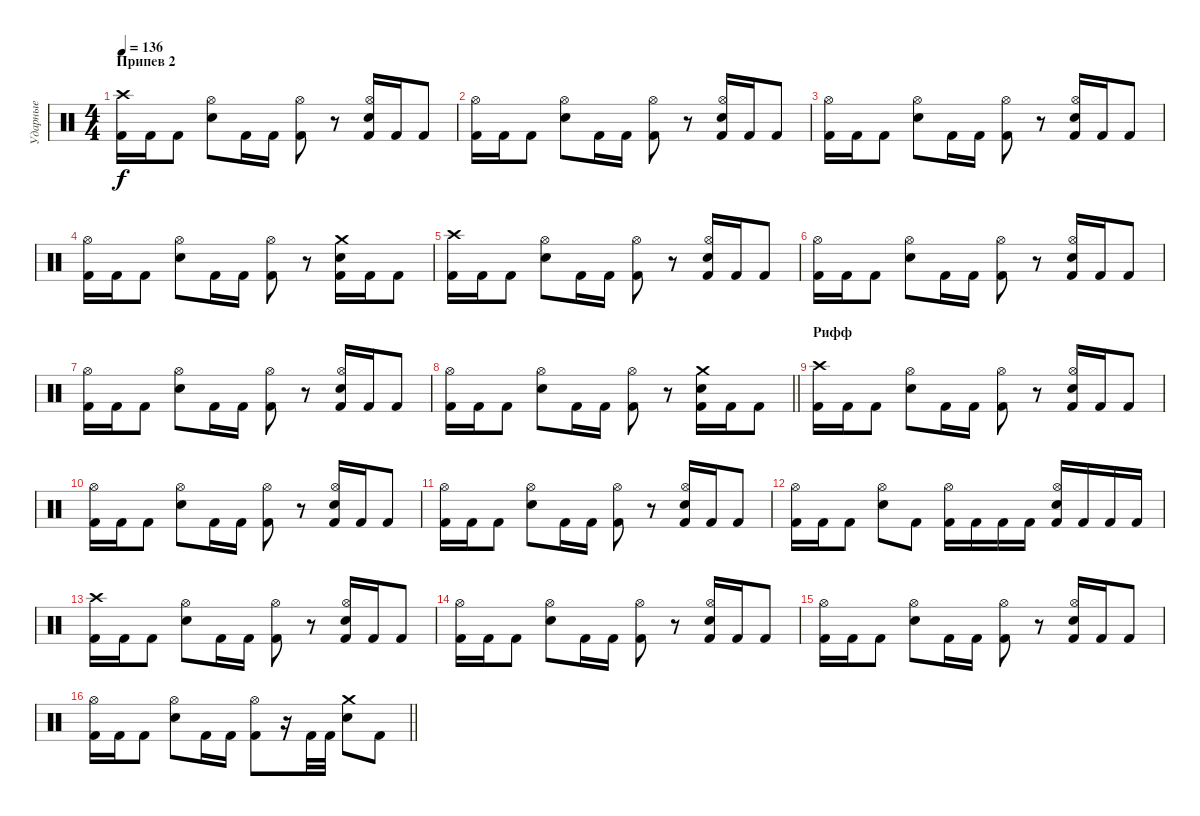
\track ("Ударные" "Ударные") {instrument percussion}
\staff {score}
\articulation defaults
\ts (4 4)
\section ("" "Припев 2")
\tempo 136
\clef neutral
\ks c
("Crash high (hit)" "Kick (hit) 2").16{dy f} "Kick (hit) 2".16 "Kick (hit) 2".8 ("Hi-Hat (open)" "Snare (hit) 2").8 "Kick (hit) 2".16 "Kick (hit) 2".16 ("Hi-Hat (open)" "Kick (hit) 2").8 r.8 ("Hi-Hat (open)" "Snare (hit) 2" "Kick (hit) 2").16 "Kick (hit) 2".16 "Kick (hit) 2".8 |
("Hi-Hat (open)" "Kick (hit) 2").16 "Kick (hit) 2".16 "Kick (hit) 2".8 ("Hi-Hat (open)" "Snare (hit) 2").8 "Kick (hit) 2".16 "Kick (hit) 2".16 ("Hi-Hat (open)" "Kick (hit) 2").8 r.8 ("Hi-Hat (open)" "Snare (hit) 2" "Kick (hit) 2").16 "Kick (hit) 2".16 "Kick (hit) 2".8 |
("Hi-Hat (open)" "Kick (hit) 2").16 "Kick (hit) 2".16 "Kick (hit) 2".8 ("Hi-Hat (open)" "Snare (hit) 2").8 "Kick (hit) 2".16 "Kick (hit) 2".16 ("Hi-Hat (open)" "Kick (hit) 2").8 r.8 ("Hi-Hat (open)" "Snare (hit) 2" "Kick (hit) 2").16 "Kick (hit) 2".16 "Kick (hit) 2".8 |
("Hi-Hat (open)" "Kick (hit) 2").16 "Kick (hit) 2".16 "Kick (hit) 2".8 ("Hi-Hat (open)" "Snare (hit) 2").8 "Kick (hit) 2".16 "Kick (hit) 2".16 ("Hi-Hat (open)" "Kick (hit) 2").8 r.8 ("Crash medium (hit)" "Snare (hit) 2" "Kick (hit) 2").16 "Kick (hit) 2".16 "Kick (hit) 2".8 |
("Crash high (hit)" "Kick (hit) 2").16 "Kick (hit) 2".16 "Kick (hit) 2".8 ("Hi-Hat (open)" "Snare (hit) 2").8 "Kick (hit) 2".16 "Kick (hit) 2".16 ("Hi-Hat (open)" "Kick (hit) 2").8 r.8 ("Hi-Hat (open)" "Snare (hit) 2" "Kick (hit) 2").16 "Kick (hit) 2".16 "Kick (hit) 2".8 |
("Hi-Hat (open)" "Kick (hit) 2").16 "Kick (hit) 2".16 "Kick (hit) 2".8 ("Hi-Hat (open)" "Snare (hit) 2").8 "Kick (hit) 2".16 "Kick (hit) 2".16 ("Hi-Hat (open)" "Kick (hit) 2").8 r.8 ("Hi-Hat (open)" "Snare (hit) 2" "Kick (hit) 2").16 "Kick (hit) 2".16 "Kick (hit) 2".8 |
("Hi-Hat (open)" "Kick (hit) 2").16 "Kick (hit) 2".16 "Kick (hit) 2".8 ("Hi-Hat (open)" "Snare (hit) 2").8 "Kick (hit) 2".16 "Kick (hit) 2".16 ("Hi-Hat (open)" "Kick (hit) 2").8 r.8 ("Hi-Hat (open)" "Snare (hit) 2" "Kick (hit) 2").16 "Kick (hit) 2".16 "Kick (hit) 2".8 |
\barLineRight lightlight
("Hi-Hat (open)" "Kick (hit) 2").16 "Kick (hit) 2".16 "Kick (hit) 2".8 ("Hi-Hat (open)" "Snare (hit) 2").8 "Kick (hit) 2".16 "Kick (hit) 2".16 ("Hi-Hat (open)" "Kick (hit) 2").8 r.8 ("Crash medium (hit)" "Snare (hit) 2" "Kick (hit) 2").16 "Kick (hit) 2".16 "Kick (hit) 2".8 |
\section ("" "Рифф")
("Crash high (hit)" "Kick (hit) 2").16 "Kick (hit) 2".16 "Kick (hit) 2".8 ("Hi-Hat (open)" "Snare (hit) 2").8 "Kick (hit) 2".16 "Kick (hit) 2".16 ("Hi-Hat (open)" "Kick (hit) 2").8 r.8 ("Hi-Hat (open)" "Snare (hit) 2" "Kick (hit) 2").16 "Kick (hit) 2".16 "Kick (hit) 2".8 |
("Hi-Hat (open)" "Kick (hit) 2").16 "Kick (hit) 2".16 "Kick (hit) 2".8 ("Hi-Hat (open)" "Snare (hit) 2").8 "Kick (hit) 2".16 "Kick (hit) 2".16 ("Hi-Hat (open)" "Kick (hit) 2").8 r.8 ("Hi-Hat (open)" "Snare (hit) 2" "Kick (hit) 2").16 "Kick (hit) 2".16 "Kick (hit) 2".8 |
("Hi-Hat (open)" "Kick (hit) 2").16 "Kick (hit) 2".16 "Kick (hit) 2".8 ("Hi-Hat (open)" "Snare (hit) 2").8 "Kick (hit) 2".16 "Kick (hit) 2".16 ("Hi-Hat (open)" "Kick (hit) 2").8 r.8 ("Hi-Hat (open)" "Snare (hit) 2" "Kick (hit) 2").16 "Kick (hit) 2".16 "Kick (hit) 2".8 |
("Hi-Hat (open)" "Kick (hit) 2").16 "Kick (hit) 2".16 "Kick (hit) 2".8 ("Hi-Hat (open)" "Snare (hit) 2").8 "Kick (hit) 2".8 ("Hi-Hat (open)" "Kick (hit) 2").16 "Kick (hit) 2".16 "Kick (hit) 2".16 "Kick (hit) 2".16 ("Hi-Hat (open)" "Snare (hit) 2" "Kick (hit) 2").16 "Kick (hit) 2".16 "Kick (hit) 2".16 "Kick (hit) 2".16 |
("Crash high (hit)" "Kick (hit) 2").16 "Kick (hit) 2".16 "Kick (hit) 2".8 ("Hi-Hat (open)" "Snare (hit) 2").8 "Kick (hit) 2".16 "Kick (hit) 2".16 ("Hi-Hat (open)" "Kick (hit) 2").8 r.8 ("Hi-Hat (open)" "Snare (hit) 2" "Kick (hit) 2").16 "Kick (hit) 2".16 "Kick (hit) 2".8 |
("Hi-Hat (open)" "Kick (hit) 2").16 "Kick (hit) 2".16 "Kick (hit) 2".8 ("Hi-Hat (open)" "Snare (hit) 2").8 "Kick (hit) 2".16 "Kick (hit) 2".16 ("Hi-Hat (open)" "Kick (hit) 2").8 r.8 ("Hi-Hat (open)" "Snare (hit) 2" "Kick (hit) 2").16 "Kick (hit) 2".16 "Kick (hit) 2".8 |
("Hi-Hat (open)" "Kick (hit) 2").16 "Kick (hit) 2".16 "Kick (hit) 2".8 ("Hi-Hat (open)" "Snare (hit) 2").8 "Kick (hit) 2".16 "Kick (hit) 2".16 ("Hi-Hat (open)" "Kick (hit) 2").8 r.8 ("Hi-Hat (open)" "Snare (hit) 2" "Kick (hit) 2").16 "Kick (hit) 2".16 "Kick (hit) 2".8 |
\barLineRight lightlight
("Hi-Hat (open)" "Kick (hit) 2").16 "Kick (hit) 2".16 "Kick (hit) 2".8 ("Hi-Hat (open)" "Snare (hit) 2").8 "Kick (hit) 2".16 "Kick (hit) 2".16 ("Hi-Hat (open)" "Kick (hit) 2").8 r.16 "Kick (hit) 2".32 "Kick (hit) 2".32 ("Crash medium (hit)" "Snare (hit) 2").8 "Kick (hit) 2".8
